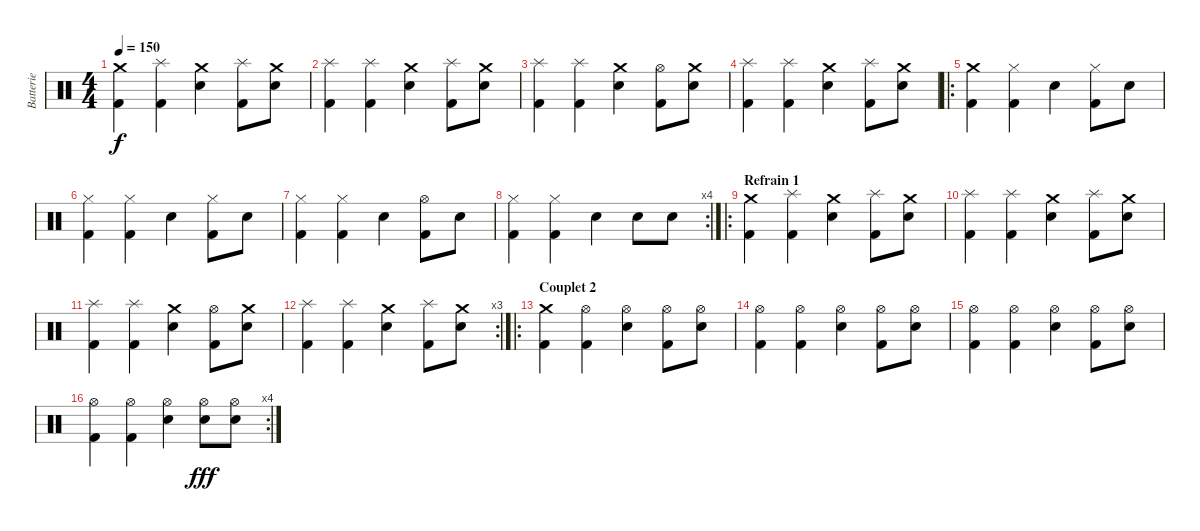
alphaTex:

\track ("Batterie" "Batterie") {instrument percussion}
\staff {score}
\articulation defaults
\ts (4 4)
\tempo 150
\clef neutral
\ks c
("Crash medium (hit)" "Kick (hit) 2").4{dy f} ("Splash (hit)" "Kick (hit) 2").4 ("Crash medium (hit)" "Snare (hit) 2").4 ("Splash (hit)" "Kick (hit) 2").8 ("Crash medium (hit)" "Snare (hit) 2").8 |
("Splash (hit)" "Kick (hit) 2").4 ("Splash (hit)" "Kick (hit) 2").4 ("Crash medium (hit)" "Snare (hit) 2").4 ("Splash (hit)" "Kick (hit) 2").8 ("Crash medium (hit)" "Snare (hit) 2").8 |
("Splash (hit)" "Kick (hit) 2").4 ("Splash (hit)" "Kick (hit) 2").4 ("Crash medium (hit)" "Snare (hit) 2").4 ("Hi-Hat (open)" "Kick (hit) 2").8 ("Crash medium (hit)" "Snare (hit) 2").8 |
("Splash (hit)" "Kick (hit) 2").4 ("Splash (hit)" "Kick (hit) 2").4 ("Crash medium (hit)" "Snare (hit) 2").4 ("Splash (hit)" "Kick (hit) 2").8 ("Crash medium (hit)" "Snare (hit) 2").8 |
\ro
("Crash medium (hit)" "Kick (hit) 2").4 ("Hi-Hat (closed)" "Kick (hit) 2").4 "Snare (hit) 2".4 ("Hi-Hat (closed)" "Kick (hit) 2").8 "Snare (hit) 2".8 |
("Hi-Hat (closed)" "Kick (hit) 2").4 ("Hi-Hat (closed)" "Kick (hit) 2").4 "Snare (hit) 2".4 ("Hi-Hat (closed)" "Kick (hit) 2").8 "Snare (hit) 2".8 |
("Hi-Hat (closed)" "Kick (hit) 2").4 ("Hi-Hat (closed)" "Kick (hit) 2").4 "Snare (hit) 2".4 ("Hi-Hat (open)" "Kick (hit) 2").8 "Snare (hit) 2".8 |
\rc 4
("Hi-Hat (closed)" "Kick (hit) 2").4 ("Hi-Hat (closed)" "Kick (hit) 2").4 "Snare (hit) 2".4 "Snare (hit) 2".8 "Snare (hit) 2".8 |
\ro
\section ("" "Refrain 1")
("Crash medium (hit)" "Kick (hit) 2").4 ("Splash (hit)" "Kick (hit) 2").4 ("Crash medium (hit)" "Snare (hit) 2").4 ("Splash (hit)" "Kick (hit) 2").8 ("Crash medium (hit)" "Snare (hit) 2").8 |
("Splash (hit)" "Kick (hit) 2").4 ("Splash (hit)" "Kick (hit) 2").4 ("Crash medium (hit)" "Snare (hit) 2").4 ("Splash (hit)" "Kick (hit) 2").8 ("Crash medium (hit)" "Snare (hit) 2").8 |
("Splash (hit)" "Kick (hit) 2").4 ("Splash (hit)" "Kick (hit) 2").4 ("Crash medium (hit)" "Snare (hit) 2").4 ("Hi-Hat (open)" "Kick (hit) 2").8 ("Crash medium (hit)" "Snare (hit) 2").8 |
\rc 3
("Splash (hit)" "Kick (hit) 2").4 ("Splash (hit)" "Kick (hit) 2").4 ("Crash medium (hit)" "Snare (hit) 2").4 ("Splash (hit)" "Kick (hit) 2").8 ("Crash medium (hit)" "Snare (hit) 2").8 |
\ro
\section ("" "Couplet 2")
("Crash medium (hit)" "Kick (hit) 2").4 ("Hi-Hat (open)" "Kick (hit) 2").4 ("Hi-Hat (open)" "Snare (hit) 2").4 ("Hi-Hat (open)" "Kick (hit) 2").8 ("Hi-Hat (open)" "Snare (hit) 2").8 |
("Hi-Hat (open)" "Kick (hit) 2").4 ("Hi-Hat (open)" "Kick (hit) 2").4 ("Hi-Hat (open)" "Snare (hit) 2").4 ("Hi-Hat (open)" "Kick (hit) 2").8 ("Hi-Hat (open)" "Snare (hit) 2").8 |
("Hi-Hat (open)" "Kick (hit) 2").4 ("Hi-Hat (open)" "Kick (hit) 2").4 ("Hi-Hat (open)" "Snare (hit) 2").4 ("Hi-Hat (open)" "Kick (hit) 2").8 ("Hi-Hat (open)" "Snare (hit) 2").8 |
\rc 4
("Hi-Hat (open)" "Kick (hit) 2").4 ("Hi-Hat (open)" "Kick (hit) 2").4 ("Hi-Hat (open)" "Snare (hit) 2").4 ("Hi-Hat (open)" "Snare (hit) 2").8{dy fff} ("Hi-Hat (open)" "Snare (hit) 2").8
